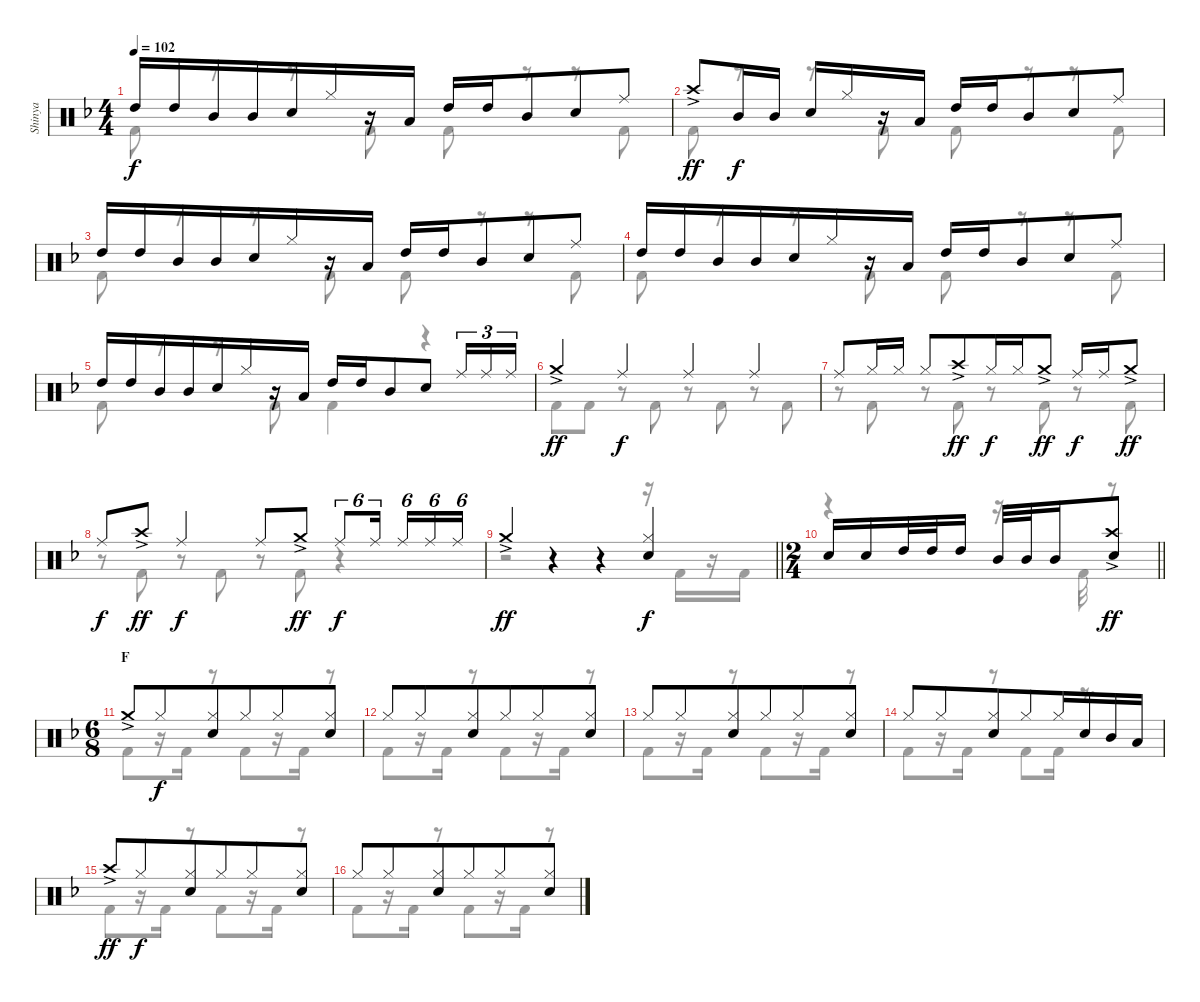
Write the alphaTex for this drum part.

\track ("Shinya" "Shinya") {mute instrument percussion}
\staff {score}
\articulation defaults
\voice
\ts (4 4)
\tempo 102
\clef neutral
\ks f "High Tom (hit)".16{dy f} "High Tom (hit)".16 "Mid Tom (hit)".16{beam merge} "Mid Tom (hit)".16{beam merge} "Snare (hit) 2".16 "Hi-Hat (closed)".16
r.16 "Low Tom (hit)".16 "High Tom (hit)".16{beam merge} "High Tom (hit)".16 "Mid Tom (hit)".8{beam merge} "Snare (hit) 2".8 "Ride (middle)".8 |
"Crash high (hit)"{ac}.8{dy ff beam merge} "Mid Tom (hit)".16{dy f} "Mid Tom (hit)".16 "Snare (hit) 2".16{beam merge} "Hi-Hat (closed)".16 r.16{beam merge} "Low Tom (hit)".16 "High Tom (hit)".16{beam merge} "High Tom (hit)".16 "Mid Tom (hit)".8{beam merge} "Snare (hit) 2".8 "Ride (middle)".8 |
"High Tom (hit)".16 "High Tom (hit)".16 "Mid Tom (hit)".16{beam merge} "Mid Tom (hit)".16{beam merge} "Snare (hit) 2".16 "Hi-Hat (closed)".16 r.16 "Low Tom (hit)".16 "High Tom (hit)".16{beam merge} "High Tom (hit)".16 "Mid Tom (hit)".8{beam merge} "Snare (hit) 2".8 "Ride (middle)".8 |
"High Tom (hit)".16 "High Tom (hit)".16 "Mid Tom (hit)".16{beam merge} "Mid Tom (hit)".16{beam merge} "Snare (hit) 2".16 "Hi-Hat (closed)".16 r.16 "Low Tom (hit)".16 "High Tom (hit)".16{beam merge} "High Tom (hit)".16 "Mid Tom (hit)".8{beam merge} "Snare (hit) 2".8 "Ride (middle)".8 |
"High Tom (hit)".16 "High Tom (hit)".16 "Mid Tom (hit)".16{beam merge} "Mid Tom (hit)".16{beam merge} "Snare (hit) 2".16 "Hi-Hat (closed)".16 r.16 "Low Tom (hit)".16 "High Tom (hit)".16{beam merge} "High Tom (hit)".16 "Mid Tom (hit)".8{beam merge} "Snare (hit) 2".8 "Ride (middle)".16{tu (3 2)} "Ride (middle)".16{tu (3 2)} "Ride (middle)".16{tu (3 2)} |
"Crash medium (hit)"{ac}.4{dy ff} "Ride (middle)".4{dy f} "Ride (middle)".4{beam merge} "Ride (middle)".4 |
"Ride (middle)".8 "Hi-Hat (closed)".16 "Hi-Hat (closed)".16 "Hi-Hat (closed)".8{beam merge} "Crash high (hit)"{ac}.8{dy ff beam merge} "Hi-Hat (closed)".16{dy f beam merge} "Hi-Hat (closed)".16 "Crash medium (hit)"{ac}.8{dy ff} "Ride (middle)".16{dy f beam merge} "Ride (middle)".16 "Crash medium (hit)"{ac}.8{dy ff} |
"Ride (middle)".8{dy f} "Crash high (hit)"{ac}.8{dy ff} "Ride (middle)".4{dy f beam merge} "Ride (middle)".8{beam merge} "Crash medium (hit)"{ac}.8{dy ff} "Ride (middle)".8{tu (6 4) dy f beam merge} "Ride (middle)".16{tu (6 4)} "Ride (middle)".16{tu (6 4) beam merge} "Ride (middle)".16{tu (6 4)} "Ride (middle)".16{tu (6 4)} |
\barLineRight lightlight "Crash medium (hit)"{ac}.4{dy ff}
r.4 r.4{beam merge} ("Hi-Hat (closed)" "Snare (hit) 2").4{dy f} |
\ts (2 4)
\barLineRight lightlight "Snare (hit) 2".16 "Snare (hit) 2".16 "High Tom (hit)".32{beam merge} "High Tom (hit)".32 "High Tom (hit)".16 "Mid Tom (hit)".32 "Mid Tom (hit)".32 "Mid Tom (hit)".16
("Crash high (hit)"{ac} "Snare (hit) 2").8{dy ff} |
\ts (6 8)
\section ("" "F")
"Crash medium (hit)"{ac}.8 "Hi-Hat (closed)".8{dy f} ("Hi-Hat (closed)" "Snare (hit) 2").8{beam merge} "Hi-Hat (closed)".8{beam merge} "Hi-Hat (closed)".8 ("Hi-Hat (closed)" "Snare (hit) 2").8 |
"Hi-Hat (closed)".8 "Hi-Hat (closed)".8 ("Hi-Hat (closed)" "Snare (hit) 2").8{beam merge} "Hi-Hat (closed)".8{beam merge} "Hi-Hat (closed)".8 ("Hi-Hat (closed)" "Snare (hit) 2").8 |
"Hi-Hat (closed)".8 "Hi-Hat (closed)".8 ("Hi-Hat (closed)" "Snare (hit) 2").8{beam merge} "Hi-Hat (closed)".8{beam merge} "Hi-Hat (closed)".8 ("Hi-Hat (closed)" "Snare (hit) 2").8 |
"Hi-Hat (closed)".8 "Hi-Hat (closed)".8 ("Hi-Hat (closed)" "Snare (hit) 2").8{beam merge} "Hi-Hat (closed)".8{beam merge} "Hi-Hat (closed)".16 "Snare (hit) 2".16 "Mid Tom (hit)".16 "Low Tom (hit)".16 |
"Crash high (hit)"{ac}.8{dy ff} "Hi-Hat (closed)".8{dy f} ("Hi-Hat (closed)" "Snare (hit) 2").8{beam merge} "Hi-Hat (closed)".8{beam merge} "Hi-Hat (closed)".8 ("Hi-Hat (closed)" "Snare (hit) 2").8 |
"Hi-Hat (closed)".8 "Hi-Hat (closed)".8 ("Hi-Hat (closed)" "Snare (hit) 2").8{beam merge} "Hi-Hat (closed)".8{beam merge} "Hi-Hat (closed)".8 ("Hi-Hat (closed)" "Snare (hit) 2").8
\voice
\clef neutral
\ottava regular
\simile none
\ks f "Kick (hit) 2".8{dy f}
r.8 r.8 "Kick (hit) 2".8 "Kick (hit) 2".8 r.8 r.8 "Kick (hit) 2".8 |
"Kick (hit) 2".8 r.8 r.8 "Kick (hit) 2".8 "Kick (hit) 2".8 r.8 r.8 "Kick (hit) 2".8 |
"Kick (hit) 2".8 r.8 r.8 "Kick (hit) 2".8 "Kick (hit) 2".8 r.8 r.8 "Kick (hit) 2".8 |
"Kick (hit) 2".8 r.8 r.8 "Kick (hit) 2".8 "Kick (hit) 2".8 r.8 r.8 "Kick (hit) 2".8 |
"Kick (hit) 2".8 r.8 r.8 "Kick (hit) 2".8 "Kick (hit) 2".4 r.4 |
"Kick (hit) 2".8 "Kick (hit) 2".8 r.8 "Kick (hit) 2".8 r.8 "Kick (hit) 2".8 r.8 "Kick (hit) 2".8 |
r.8 "Kick (hit) 2".8 r.8 "Kick (hit) 2".8 r.8 "Kick (hit) 2".8 r.8 "Kick (hit) 2".8 |
r.8 "Kick (hit) 2".8 r.8 "Kick (hit) 2".8 r.8 "Kick (hit) 2".8 r.4 |
\barLineRight lightlight
r.2 r.4 r.16 "Kick (hit) 2".16 r.16 "Kick (hit) 2".16 |
\barLineRight lightlight
r.4 r.16{d} "Kick (hit) 2".32 r.8 |
"Kick (hit) 2".8 r.16 "Kick (hit) 2".16 r.8 "Kick (hit) 2".8 r.16 "Kick (hit) 2".16 r.8 |
"Kick (hit) 2".8 r.16 "Kick (hit) 2".16 r.8 "Kick (hit) 2".8 r.16 "Kick (hit) 2".16 r.8 |
"Kick (hit) 2".8 r.16 "Kick (hit) 2".16 r.8 "Kick (hit) 2".8 r.16 "Kick (hit) 2".16 r.8 |
"Kick (hit) 2".8 r.16 "Kick (hit) 2".16 r.8 "Kick (hit) 2".8 "Kick (hit) 2".16 r.8{d} |
"Kick (hit) 2".8 r.16 "Kick (hit) 2".16 r.8 "Kick (hit) 2".8 r.16 "Kick (hit) 2".16 r.8 |
"Kick (hit) 2".8 r.16 "Kick (hit) 2".16 r.8 "Kick (hit) 2".8 r.16 "Kick (hit) 2".16 r.8
